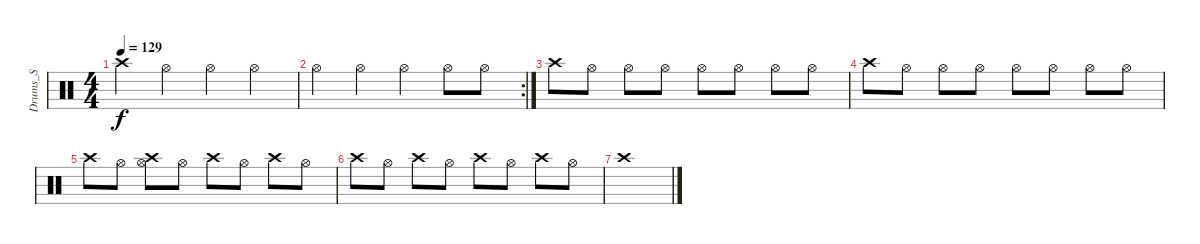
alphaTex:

\track ("Drums_S" "Drums_S") {instrument percussion}
\staff {score}
\articulation defaults
\ts (4 4)
\tempo 129
\clef neutral
\ks c "Crash high (hit)".4{dy f} "Hi-Hat (open)".4 "Hi-Hat (open)".4 "Hi-Hat (open)".4
|
\rc 2 "Hi-Hat (open)".4 "Hi-Hat (open)".4 "Hi-Hat (open)".4 "Hi-Hat (open)".8 "Hi-Hat (open)".8
|
"Crash high (hit)".8 "Hi-Hat (open)".8 "Hi-Hat (open)".8 "Hi-Hat (open)".8 "Hi-Hat (open)".8 "Hi-Hat (open)".8 "Hi-Hat (open)".8 "Hi-Hat (open)".8 |
"Crash high (hit)".8 "Hi-Hat (open)".8 "Hi-Hat (open)".8 "Hi-Hat (open)".8 "Hi-Hat (open)".8 "Hi-Hat (open)".8 "Hi-Hat (open)".8 "Hi-Hat (open)".8 |
"Crash high (hit)".8 "Hi-Hat (open)".8 ("Hi-Hat (open)" "Crash high (hit)").8 "Hi-Hat (open)".8 "Crash high (hit)".8 "Hi-Hat (open)".8 "Crash high (hit)".8 "Hi-Hat (open)".8 |
"Crash high (hit)".8 "Hi-Hat (open)".8 "Crash high (hit)".8 "Hi-Hat (open)".8 "Crash high (hit)".8 "Hi-Hat (open)".8 "Crash high (hit)".8 "Hi-Hat (open)".8 |
"Crash high (hit)".1
